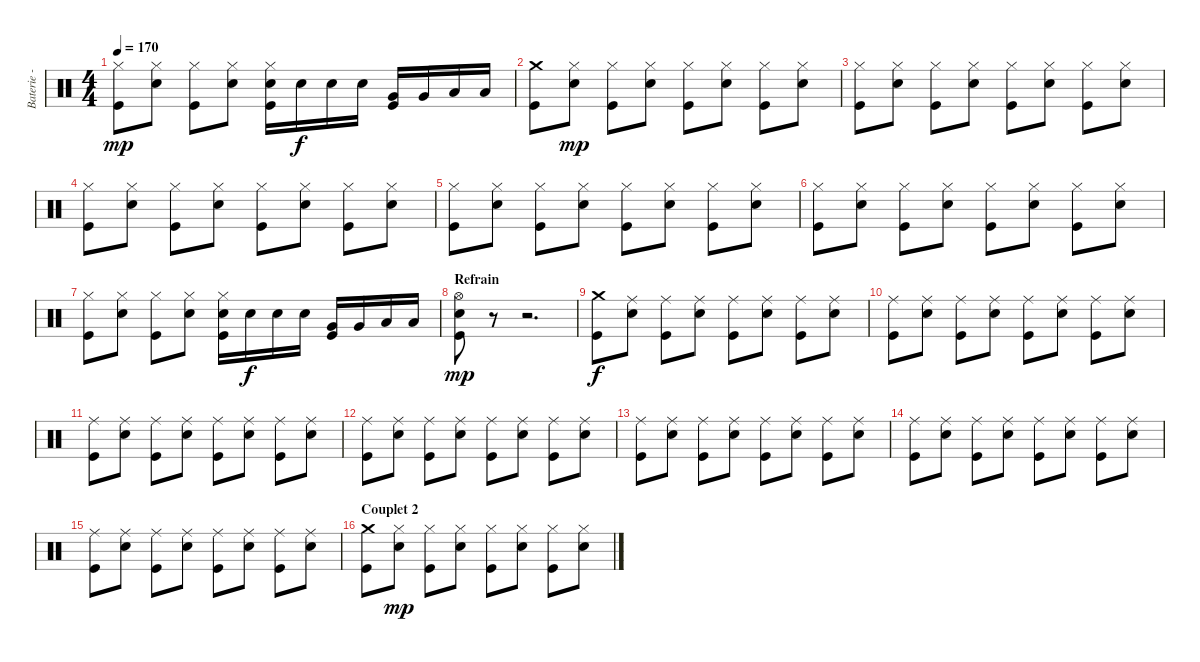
\track ("Baterie - Guillaume" "Baterie - ") {instrument percussion}
\staff {score}
\articulation defaults
\ts (4 4)
\tempo 170
\clef neutral
\ks c
("Hi-Hat (closed)" "Kick (hit)").8{dy mp} ("Hi-Hat (closed)" "Electric Snare (hit)").8 ("Hi-Hat (closed)" "Kick (hit)").8 ("Hi-Hat (closed)" "Electric Snare (hit)").8 ("Hi-Hat (closed)" "Electric Snare (hit)" "Kick (hit)").16 "Electric Snare (hit)".16{dy f} "Electric Snare (hit)".16 "Electric Snare (hit)".16 ("Very Low Tom (hit)" "Kick (hit)").16 "Very Low Tom (hit)".16 "Low Tom (hit)".16 "Low Tom (hit)".16 |
("Crash medium (hit)" "Kick (hit)").8 ("Hi-Hat (closed)" "Electric Snare (hit)").8{dy mp} ("Hi-Hat (closed)" "Kick (hit)").8 ("Hi-Hat (closed)" "Electric Snare (hit)").8 ("Hi-Hat (closed)" "Kick (hit)").8 ("Hi-Hat (closed)" "Electric Snare (hit)").8 ("Hi-Hat (closed)" "Kick (hit)").8 ("Hi-Hat (closed)" "Electric Snare (hit)").8 |
("Hi-Hat (closed)" "Kick (hit)").8 ("Hi-Hat (closed)" "Electric Snare (hit)").8 ("Hi-Hat (closed)" "Kick (hit)").8 ("Hi-Hat (closed)" "Electric Snare (hit)").8 ("Hi-Hat (closed)" "Kick (hit)").8 ("Hi-Hat (closed)" "Electric Snare (hit)").8 ("Hi-Hat (closed)" "Kick (hit)").8 ("Hi-Hat (closed)" "Electric Snare (hit)").8 |
("Hi-Hat (closed)" "Kick (hit)").8 ("Hi-Hat (closed)" "Electric Snare (hit)").8 ("Hi-Hat (closed)" "Kick (hit)").8 ("Hi-Hat (closed)" "Electric Snare (hit)").8 ("Hi-Hat (closed)" "Kick (hit)").8 ("Hi-Hat (closed)" "Electric Snare (hit)").8 ("Hi-Hat (closed)" "Kick (hit)").8 ("Hi-Hat (closed)" "Electric Snare (hit)").8 |
("Hi-Hat (closed)" "Kick (hit)").8 ("Hi-Hat (closed)" "Electric Snare (hit)").8 ("Hi-Hat (closed)" "Kick (hit)").8 ("Hi-Hat (closed)" "Electric Snare (hit)").8 ("Hi-Hat (closed)" "Kick (hit)").8 ("Hi-Hat (closed)" "Electric Snare (hit)").8 ("Hi-Hat (closed)" "Kick (hit)").8 ("Hi-Hat (closed)" "Electric Snare (hit)").8 |
("Hi-Hat (closed)" "Kick (hit)").8 ("Hi-Hat (closed)" "Electric Snare (hit)").8 ("Hi-Hat (closed)" "Kick (hit)").8 ("Hi-Hat (closed)" "Electric Snare (hit)").8 ("Hi-Hat (closed)" "Kick (hit)").8 ("Hi-Hat (closed)" "Electric Snare (hit)").8 ("Hi-Hat (closed)" "Kick (hit)").8 ("Hi-Hat (closed)" "Electric Snare (hit)").8 |
("Hi-Hat (closed)" "Kick (hit)").8 ("Hi-Hat (closed)" "Electric Snare (hit)").8 ("Hi-Hat (closed)" "Kick (hit)").8 ("Hi-Hat (closed)" "Electric Snare (hit)").8 ("Hi-Hat (closed)" "Electric Snare (hit)" "Kick (hit)").16 "Electric Snare (hit)".16{dy f} "Electric Snare (hit)".16 "Electric Snare (hit)".16 ("Very Low Tom (hit)" "Kick (hit)").16 "Very Low Tom (hit)".16 "Low Tom (hit)".16 "Low Tom (hit)".16 |
\section ("" "Refrain")
("Hi-Hat (open)" "Electric Snare (hit)" "Kick (hit)").8{dy mp} r.8 r.2{d} |
("Crash medium (hit)" "Kick (hit)").8{dy f} ("Ride (middle)" "Electric Snare (hit)").8 ("Ride (middle)" "Kick (hit)").8 ("Ride (middle)" "Electric Snare (hit)").8 ("Ride (middle)" "Kick (hit)").8 ("Ride (middle)" "Electric Snare (hit)").8 ("Ride (middle)" "Kick (hit)").8 ("Ride (middle)" "Electric Snare (hit)").8 |
("Ride (middle)" "Kick (hit)").8 ("Ride (middle)" "Electric Snare (hit)").8 ("Ride (middle)" "Kick (hit)").8 ("Ride (middle)" "Electric Snare (hit)").8 ("Ride (middle)" "Kick (hit)").8 ("Ride (middle)" "Electric Snare (hit)").8 ("Ride (middle)" "Kick (hit)").8 ("Ride (middle)" "Electric Snare (hit)").8 |
("Ride (middle)" "Kick (hit)").8 ("Ride (middle)" "Electric Snare (hit)").8 ("Ride (middle)" "Kick (hit)").8 ("Ride (middle)" "Electric Snare (hit)").8 ("Ride (middle)" "Kick (hit)").8 ("Ride (middle)" "Electric Snare (hit)").8 ("Ride (middle)" "Kick (hit)").8 ("Ride (middle)" "Electric Snare (hit)").8 |
("Ride (middle)" "Kick (hit)").8 ("Ride (middle)" "Electric Snare (hit)").8 ("Ride (middle)" "Kick (hit)").8 ("Ride (middle)" "Electric Snare (hit)").8 ("Ride (middle)" "Kick (hit)").8 ("Ride (middle)" "Electric Snare (hit)").8 ("Ride (middle)" "Kick (hit)").8 ("Ride (middle)" "Electric Snare (hit)").8 |
("Ride (middle)" "Kick (hit)").8 ("Ride (middle)" "Electric Snare (hit)").8 ("Ride (middle)" "Kick (hit)").8 ("Ride (middle)" "Electric Snare (hit)").8 ("Ride (middle)" "Kick (hit)").8 ("Ride (middle)" "Electric Snare (hit)").8 ("Ride (middle)" "Kick (hit)").8 ("Ride (middle)" "Electric Snare (hit)").8 |
("Ride (middle)" "Kick (hit)").8 ("Ride (middle)" "Electric Snare (hit)").8 ("Ride (middle)" "Kick (hit)").8 ("Ride (middle)" "Electric Snare (hit)").8 ("Ride (middle)" "Kick (hit)").8 ("Ride (middle)" "Electric Snare (hit)").8 ("Ride (middle)" "Kick (hit)").8 ("Ride (middle)" "Electric Snare (hit)").8 |
("Ride (middle)" "Kick (hit)").8 ("Ride (middle)" "Electric Snare (hit)").8 ("Ride (middle)" "Kick (hit)").8 ("Ride (middle)" "Electric Snare (hit)").8 ("Ride (middle)" "Kick (hit)").8 ("Ride (middle)" "Electric Snare (hit)").8 ("Ride (middle)" "Kick (hit)").8 ("Ride (middle)" "Electric Snare (hit)").8 |
\section ("" "Couplet 2")
("Crash medium (hit)" "Kick (hit)").8 ("Hi-Hat (closed)" "Electric Snare (hit)").8{dy mp} ("Hi-Hat (closed)" "Kick (hit)").8 ("Hi-Hat (closed)" "Electric Snare (hit)").8 ("Hi-Hat (closed)" "Kick (hit)").8 ("Hi-Hat (closed)" "Electric Snare (hit)").8 ("Hi-Hat (closed)" "Kick (hit)").8 ("Hi-Hat (closed)" "Electric Snare (hit)").8
